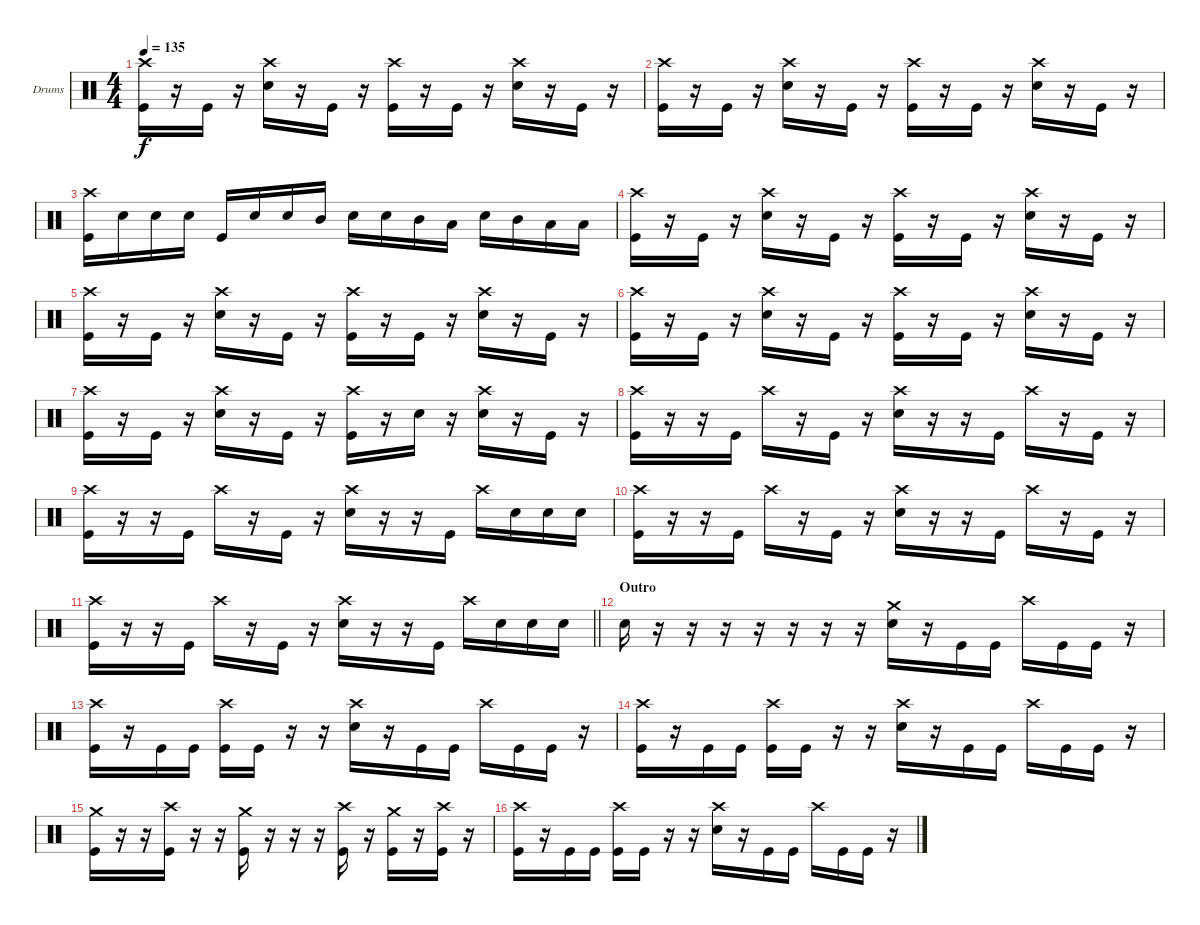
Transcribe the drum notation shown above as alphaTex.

\bracketExtendMode groupsimilarinstruments
\firstSystemTrackNameOrientation horizontal
\otherSystemsTrackNameOrientation horizontal
\track ("Drumkit" "Drums") {instrument percussion}
\staff {score}
\articulation defaults
\ts (4 4)
\tempo 135
\clef neutral
\ks c
("Crash high (hit)" "Kick (hit)").16{dy f} r.16 "Kick (hit)".16 r.16 ("Crash high (hit)" "Snare (hit) 2").16 r.16 "Kick (hit)".16 r.16 ("Crash high (hit)" "Kick (hit)").16 r.16 "Kick (hit)".16 r.16 ("Crash high (hit)" "Snare (hit) 2").16 r.16 "Kick (hit)".16 r.16 |
("Crash high (hit)" "Kick (hit)").16 r.16 "Kick (hit)".16 r.16 ("Crash high (hit)" "Snare (hit) 2").16 r.16 "Kick (hit)".16 r.16 ("Crash high (hit)" "Kick (hit)").16 r.16 "Kick (hit)".16 r.16 ("Crash high (hit)" "Snare (hit) 2").16 r.16 "Kick (hit)".16 r.16 |
("Crash high (hit)" "Kick (hit)").16 "Snare (hit) 2".16 "Snare (hit) 2".16 "Snare (hit) 2".16 "Kick (hit)".16 "Snare (hit) 2".16 "Snare (hit) 2".16 "Mid Tom (hit)".16 "Snare (hit) 2".16 "Snare (hit) 2".16 "Mid Tom (hit)".16 "Low Tom (hit)".16 "Snare (hit) 2".16 "Mid Tom (hit)".16 "Low Tom (hit)".16 "Low Tom (hit)".16 |
("Crash high (hit)" "Kick (hit)").16 r.16 "Kick (hit)".16 r.16 ("Crash high (hit)" "Snare (hit) 2").16 r.16 "Kick (hit)".16 r.16 ("Crash high (hit)" "Kick (hit)").16 r.16 "Kick (hit)".16 r.16 ("Crash high (hit)" "Snare (hit) 2").16 r.16 "Kick (hit)".16 r.16 |
("Crash high (hit)" "Kick (hit)").16 r.16 "Kick (hit)".16 r.16 ("Crash high (hit)" "Snare (hit) 2").16 r.16 "Kick (hit)".16 r.16 ("Crash high (hit)" "Kick (hit)").16 r.16 "Kick (hit)".16 r.16 ("Crash high (hit)" "Snare (hit) 2").16 r.16 "Kick (hit)".16 r.16 |
("Crash high (hit)" "Kick (hit)").16 r.16 "Kick (hit)".16 r.16 ("Crash high (hit)" "Snare (hit) 2").16 r.16 "Kick (hit)".16 r.16 ("Crash high (hit)" "Kick (hit)").16 r.16 "Kick (hit)".16 r.16 ("Crash high (hit)" "Snare (hit) 2").16 r.16 "Kick (hit)".16 r.16 |
("Crash high (hit)" "Kick (hit)").16 r.16 "Kick (hit)".16 r.16 ("Crash high (hit)" "Snare (hit) 2").16 r.16 "Kick (hit)".16 r.16 ("Crash high (hit)" "Kick (hit)").16 r.16 "Snare (hit) 2".16 r.16 ("Crash high (hit)" "Snare (hit) 2").16 r.16 "Kick (hit)".16 r.16 |
("Crash high (hit)" "Kick (hit)").16 r.16 r.16 "Kick (hit)".16 "Crash high (hit)".16 r.16 "Kick (hit)".16 r.16 ("Crash high (hit)" "Snare (hit) 2").16 r.16 r.16 "Kick (hit)".16 "Crash high (hit)".16 r.16 "Kick (hit)".16 r.16 |
("Crash high (hit)" "Kick (hit)").16 r.16 r.16 "Kick (hit)".16 "Crash high (hit)".16 r.16 "Kick (hit)".16 r.16 ("Crash high (hit)" "Snare (hit) 2").16 r.16 r.16 "Kick (hit)".16 "Crash high (hit)".16 "Snare (hit) 2".16 "Snare (hit) 2".16 "Snare (hit) 2".16 |
("Crash high (hit)" "Kick (hit)").16 r.16 r.16 "Kick (hit)".16 "Crash high (hit)".16 r.16 "Kick (hit)".16 r.16 ("Crash high (hit)" "Snare (hit) 2").16 r.16 r.16 "Kick (hit)".16 "Crash high (hit)".16 r.16 "Kick (hit)".16 r.16 |
\barLineRight lightlight
("Crash high (hit)" "Kick (hit)").16 r.16 r.16 "Kick (hit)".16 "Crash high (hit)".16 r.16 "Kick (hit)".16 r.16 ("Crash high (hit)" "Snare (hit) 2").16 r.16 r.16 "Kick (hit)".16 "Crash high (hit)".16 "Snare (hit) 2".16 "Snare (hit) 2".16 "Snare (hit) 2".16 |
\section ("" "Outro")
"Snare (hit) 2".16 r.16 r.16 r.16 r.16 r.16 r.16 r.16 ("Crash medium (hit)" "Snare (hit) 2").16 r.16 "Kick (hit)".16 "Kick (hit)".16 "Crash high (hit)".16 "Kick (hit)".16 "Kick (hit)".16 r.16 |
("Crash high (hit)" "Kick (hit)").16 r.16 "Kick (hit)".16 "Kick (hit)".16 ("Crash high (hit)" "Kick (hit)").16 "Kick (hit)".16 r.16 r.16 ("Crash high (hit)" "Snare (hit) 2").16 r.16 "Kick (hit)".16 "Kick (hit)".16 "Crash high (hit)".16 "Kick (hit)".16 "Kick (hit)".16 r.16 |
("Crash high (hit)" "Kick (hit)").16 r.16 "Kick (hit)".16 "Kick (hit)".16 ("Crash high (hit)" "Kick (hit)").16 "Kick (hit)".16 r.16 r.16 ("Crash high (hit)" "Snare (hit) 2").16 r.16 "Kick (hit)".16 "Kick (hit)".16 "Crash high (hit)".16 "Kick (hit)".16 "Kick (hit)".16 r.16 |
("Crash medium (hit)" "Kick (hit)").16 r.16 r.16 ("Crash high (hit)" "Kick (hit)").16 r.16 r.16 ("Crash medium (hit)" "Kick (hit)").16 r.16 r.16 r.16 ("Crash high (hit)" "Kick (hit)").16 r.16 ("Crash medium (hit)" "Kick (hit)").16 r.16 ("Crash high (hit)" "Kick (hit)").16 r.16 |
("Crash high (hit)" "Kick (hit)").16 r.16 "Kick (hit)".16 "Kick (hit)".16 ("Crash high (hit)" "Kick (hit)").16 "Kick (hit)".16 r.16 r.16 ("Crash high (hit)" "Snare (hit) 2").16 r.16 "Kick (hit)".16 "Kick (hit)".16 "Crash high (hit)".16 "Kick (hit)".16 "Kick (hit)".16 r.16
